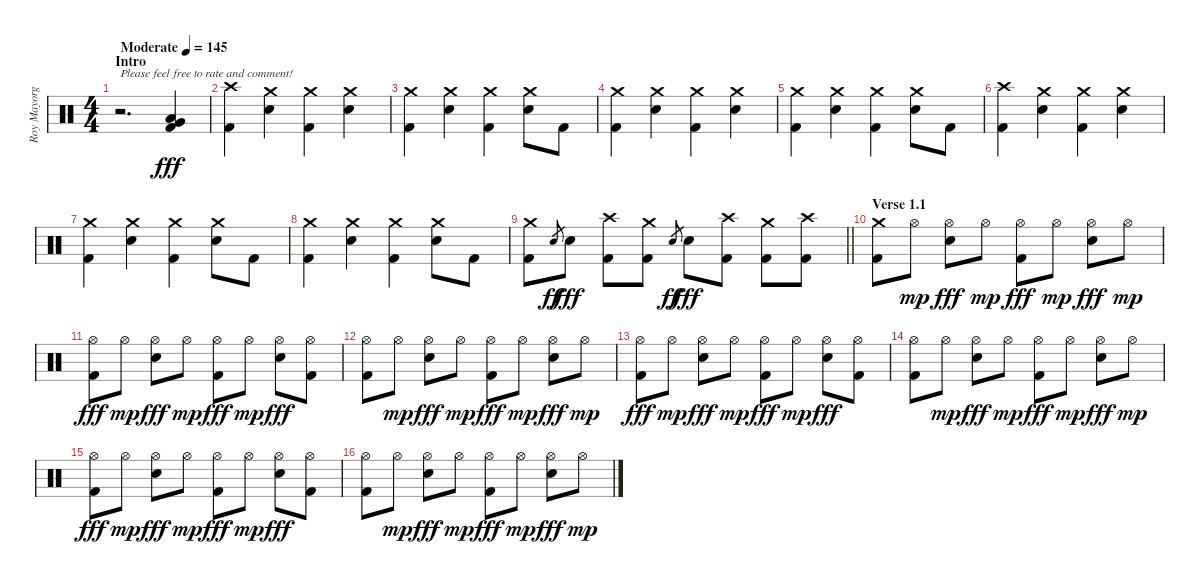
\track ("Roy Mayorga" "Roy Mayorg") {instrument percussion}
\staff {score}
\articulation defaults
\ts (4 4)
\section ("" "Intro")
\tempo (145 "Moderate")
\clef neutral
\ks c
r.2{d txt "Please feel free to rate and comment!" dy fff} ("Very Low Tom (hit)" "Low Floor Tom (hit)" "Kick (hit) 2").4 |
("Crash high (hit)" "Kick (hit) 2").4 ("Crash medium (hit)" "Electric Snare (hit)").4 ("Crash medium (hit)" "Kick (hit) 2").4 ("Crash medium (hit)" "Electric Snare (hit)").4 |
("Crash medium (hit)" "Kick (hit) 2").4 ("Crash medium (hit)" "Electric Snare (hit)").4 ("Crash medium (hit)" "Kick (hit) 2").4 ("Crash medium (hit)" "Electric Snare (hit)").8 "Kick (hit) 2".8 |
("Crash medium (hit)" "Kick (hit) 2").4 ("Crash medium (hit)" "Electric Snare (hit)").4 ("Crash medium (hit)" "Kick (hit) 2").4 ("Crash medium (hit)" "Electric Snare (hit)").4 |
("Crash medium (hit)" "Kick (hit) 2").4 ("Crash medium (hit)" "Electric Snare (hit)").4 ("Crash medium (hit)" "Kick (hit) 2").4 ("Crash medium (hit)" "Electric Snare (hit)").8 "Kick (hit) 2".8 |
("Crash high (hit)" "Kick (hit) 2").4 ("Crash medium (hit)" "Electric Snare (hit)").4 ("Crash medium (hit)" "Kick (hit) 2").4 ("Crash medium (hit)" "Electric Snare (hit)").4 |
("Crash medium (hit)" "Kick (hit) 2").4 ("Crash medium (hit)" "Electric Snare (hit)").4 ("Crash medium (hit)" "Kick (hit) 2").4 ("Crash medium (hit)" "Electric Snare (hit)").8 "Kick (hit) 2".8 |
("Crash medium (hit)" "Kick (hit) 2").4 ("Crash medium (hit)" "Electric Snare (hit)").4 ("Crash medium (hit)" "Kick (hit) 2").4 ("Crash medium (hit)" "Electric Snare (hit)").8 "Kick (hit) 2".8 |
\barLineRight lightlight
("Crash medium (hit)" "Kick (hit) 2").8 "Electric Snare (hit)".8{gr dy ff} "Electric Snare (hit)".8{dy fff} ("Crash high (hit)" "Kick (hit) 2").8 ("Crash medium (hit)" "Kick (hit) 2").8 "Electric Snare (hit)".8{gr dy ff} "Electric Snare (hit)".8{dy fff} ("Crash high (hit)" "Kick (hit) 2").8 ("Crash medium (hit)" "Kick (hit) 2").8 ("Crash high (hit)" "Kick (hit) 2").8 |
\section ("" "Verse 1.1")
("Crash medium (hit)" "Kick (hit) 2").8 "Hi-Hat (open)".8{dy mp} ("Hi-Hat (open)" "Electric Snare (hit)").8{dy fff} "Hi-Hat (open)".8{dy mp} ("Hi-Hat (open)" "Kick (hit) 2").8{dy fff} "Hi-Hat (open)".8{dy mp} ("Hi-Hat (open)" "Electric Snare (hit)").8{dy fff} "Hi-Hat (open)".8{dy mp} |
("Hi-Hat (open)" "Kick (hit) 2").8{dy fff} "Hi-Hat (open)".8{dy mp} ("Hi-Hat (open)" "Electric Snare (hit)").8{dy fff} "Hi-Hat (open)".8{dy mp} ("Hi-Hat (open)" "Kick (hit) 2").8{dy fff} "Hi-Hat (open)".8{dy mp} ("Hi-Hat (open)" "Electric Snare (hit)").8{dy fff} ("Hi-Hat (open)" "Kick (hit) 2").8 |
("Hi-Hat (open)" "Kick (hit) 2").8 "Hi-Hat (open)".8{dy mp} ("Hi-Hat (open)" "Electric Snare (hit)").8{dy fff} "Hi-Hat (open)".8{dy mp} ("Hi-Hat (open)" "Kick (hit) 2").8{dy fff} "Hi-Hat (open)".8{dy mp} ("Hi-Hat (open)" "Electric Snare (hit)").8{dy fff} "Hi-Hat (open)".8{dy mp} |
("Hi-Hat (open)" "Kick (hit) 2").8{dy fff} "Hi-Hat (open)".8{dy mp} ("Hi-Hat (open)" "Electric Snare (hit)").8{dy fff} "Hi-Hat (open)".8{dy mp} ("Hi-Hat (open)" "Kick (hit) 2").8{dy fff} "Hi-Hat (open)".8{dy mp} ("Hi-Hat (open)" "Electric Snare (hit)").8{dy fff} ("Hi-Hat (open)" "Kick (hit) 2").8 |
("Hi-Hat (open)" "Kick (hit) 2").8 "Hi-Hat (open)".8{dy mp} ("Hi-Hat (open)" "Electric Snare (hit)").8{dy fff} "Hi-Hat (open)".8{dy mp} ("Hi-Hat (open)" "Kick (hit) 2").8{dy fff} "Hi-Hat (open)".8{dy mp} ("Hi-Hat (open)" "Electric Snare (hit)").8{dy fff} "Hi-Hat (open)".8{dy mp} |
("Hi-Hat (open)" "Kick (hit) 2").8{dy fff} "Hi-Hat (open)".8{dy mp} ("Hi-Hat (open)" "Electric Snare (hit)").8{dy fff} "Hi-Hat (open)".8{dy mp} ("Hi-Hat (open)" "Kick (hit) 2").8{dy fff} "Hi-Hat (open)".8{dy mp} ("Hi-Hat (open)" "Electric Snare (hit)").8{dy fff} ("Hi-Hat (open)" "Kick (hit) 2").8 |
("Hi-Hat (open)" "Kick (hit) 2").8 "Hi-Hat (open)".8{dy mp} ("Hi-Hat (open)" "Electric Snare (hit)").8{dy fff} "Hi-Hat (open)".8{dy mp} ("Hi-Hat (open)" "Kick (hit) 2").8{dy fff} "Hi-Hat (open)".8{dy mp} ("Hi-Hat (open)" "Electric Snare (hit)").8{dy fff} "Hi-Hat (open)".8{dy mp}
